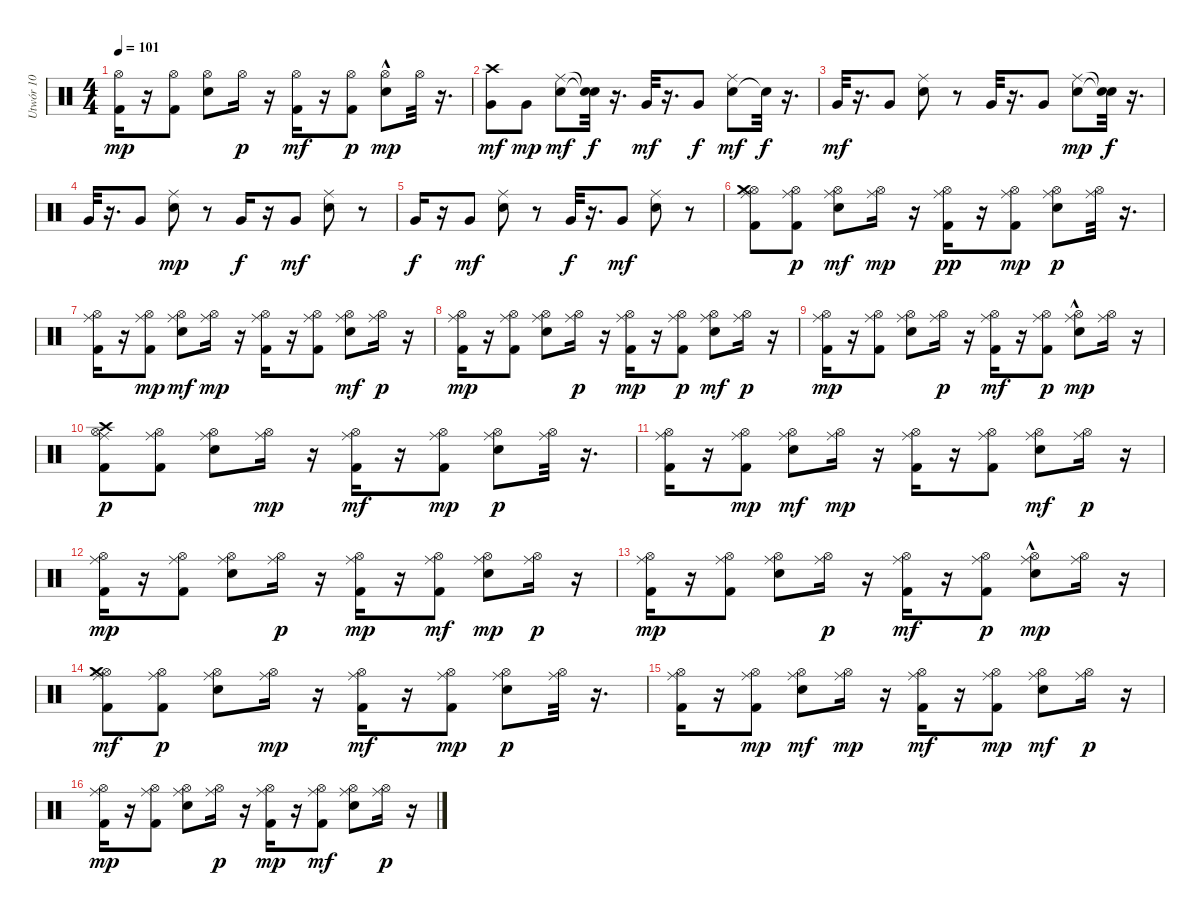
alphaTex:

\track ("Utwór 10" "Utwór 10") {instrument percussion}
\staff {score}
\articulation defaults
\ts (4 4)
\tempo 101
\clef neutral
\ks c
("Hi-Hat (open)" "Kick (hit) 2").16{dy mp} r.16 ("Hi-Hat (open)" "Kick (hit) 2").8 ("Snare (hit) 2" "Hi-Hat (open)").8 "Hi-Hat (open)".16{dy p} r.16 ("Hi-Hat (open)" "Kick (hit) 2").16{dy mf} r.16 ("Hi-Hat (open)" "Kick (hit) 2").8{dy p} ("Hi-Hat (open)" "Snare (hit) 2"{hac}).8{dy mp} "Hi-Hat (open)".32 r.16{d} |
("Very Low Tom (hit)" "Crash high (hit)").8{dy mf} "Very Low Tom (hit)".8{dy mp} ("Ride (middle)" "Snare (hit) 2").8{dy mf} ("Snare (hit)"{t} "Snare (hit)"{t}).32{dy f} r.16{d} "Very Low Tom (hit)".32{dy mf} r.16{d} "Very Low Tom (hit)".8{dy f} ("Snare (hit) 2" "Ride (middle)").8{dy mf} "Snare (hit)"{t}.32{dy f} r.16{d} |
"Very Low Tom (hit)".32{dy mf} r.16{d} "Very Low Tom (hit)".8 ("Snare (hit) 2" "Ride (middle)").8 r.8 "Very Low Tom (hit)".32 r.16{d} "Very Low Tom (hit)".8 ("Ride (middle)" "Snare (hit) 2").8{dy mp} ("Snare (hit)"{t} "Snare (hit)"{t}).32{dy f} r.16{d} |
"Very Low Tom (hit)".32 r.16{d} "Very Low Tom (hit)".8 ("Ride (middle)" "Snare (hit) 2").8{dy mp} r.8 "Very Low Tom (hit)".16{dy f} r.16 "Very Low Tom (hit)".8{dy mf} ("Snare (hit) 2" "Ride (middle)").8 r.8 |
"Very Low Tom (hit)".16{dy f} r.16 "Very Low Tom (hit)".8{dy mf} ("Snare (hit) 2" "Ride (middle)").8 r.8 "Very Low Tom (hit)".32{dy f} r.16{d} "Very Low Tom (hit)".8{dy mf} ("Snare (hit) 2" "Ride (middle)").8 r.8 |
("Hi-Hat (open)" "Crash medium (hit)" "Ride (middle)" "Kick (hit) 2").8 ("Kick (hit) 2" "Hi-Hat (open)" "Ride (middle)").8{dy p} ("Hi-Hat (open)" "Snare (hit) 2" "Ride (middle)").8{dy mf} ("Hi-Hat (open)" "Ride (middle)").16{dy mp} r.16 ("Kick (hit) 2" "Ride (middle)" "Hi-Hat (open)").16{dy pp} r.16 ("Kick (hit) 2" "Ride (middle)" "Hi-Hat (open)").8{dy mp} ("Hi-Hat (open)" "Ride (middle)" "Snare (hit) 2").8{dy p} ("Ride (middle)" "Hi-Hat (open)").32 r.16{d} |
("Ride (middle)" "Kick (hit) 2" "Hi-Hat (open)").16 r.16 ("Kick (hit) 2" "Ride (middle)" "Hi-Hat (open)").8{dy mp} ("Ride (middle)" "Hi-Hat (open)" "Snare (hit) 2").8{dy mf} ("Hi-Hat (open)" "Ride (middle)").16{dy mp} r.16 ("Ride (middle)" "Kick (hit) 2" "Hi-Hat (open)").16 r.16 ("Kick (hit) 2" "Hi-Hat (open)" "Ride (middle)").8 ("Hi-Hat (open)" "Ride (middle)" "Snare (hit) 2").8{dy mf} ("Hi-Hat (open)" "Ride (middle)").16{dy p} r.16 |
("Hi-Hat (open)" "Ride (middle)" "Kick (hit) 2").16{dy mp} r.16 ("Kick (hit) 2" "Hi-Hat (open)" "Ride (middle)").8 ("Snare (hit) 2" "Ride (middle)" "Hi-Hat (open)").8 ("Hi-Hat (open)" "Ride (middle)").16{dy p} r.16 ("Kick (hit) 2" "Ride (middle)" "Hi-Hat (open)").16{dy mp} r.16 ("Kick (hit) 2" "Hi-Hat (open)" "Ride (middle)").8{dy p} ("Hi-Hat (open)" "Ride (middle)" "Snare (hit) 2").8{dy mf} ("Ride (middle)" "Hi-Hat (open)").16{dy p} r.16 |
("Kick (hit) 2" "Hi-Hat (open)" "Ride (middle)").16{dy mp} r.16 ("Hi-Hat (open)" "Ride (middle)" "Kick (hit) 2").8 ("Snare (hit) 2" "Hi-Hat (open)" "Ride (middle)").8 ("Hi-Hat (open)" "Ride (middle)").16{dy p} r.16 ("Ride (middle)" "Hi-Hat (open)" "Kick (hit) 2").16{dy mf} r.16 ("Hi-Hat (open)" "Ride (middle)" "Kick (hit) 2").8{dy p} ("Hi-Hat (open)" "Snare (hit) 2"{hac} "Ride (middle)").8{dy mp} ("Ride (middle)" "Hi-Hat (open)").16 r.16 |
("Crash high (hit)" "Kick (hit) 2" "Ride (middle)" "Hi-Hat (open)").8{dy p} ("Kick (hit) 2" "Ride (middle)" "Hi-Hat (open)").8 ("Ride (middle)" "Snare (hit) 2" "Hi-Hat (open)").8 ("Ride (middle)" "Hi-Hat (open)").16{dy mp} r.16 ("Ride (middle)" "Hi-Hat (open)" "Kick (hit) 2").16{dy mf} r.16 ("Ride (middle)" "Hi-Hat (open)" "Kick (hit) 2").8{dy mp} ("Ride (middle)" "Snare (hit) 2" "Hi-Hat (open)").8{dy p} ("Hi-Hat (open)" "Ride (middle)").32 r.16{d} |
("Ride (middle)" "Kick (hit) 2" "Hi-Hat (open)").16 r.16 ("Kick (hit) 2" "Hi-Hat (open)" "Ride (middle)").8{dy mp} ("Ride (middle)" "Hi-Hat (open)" "Snare (hit) 2").8{dy mf} ("Ride (middle)" "Hi-Hat (open)").16{dy mp} r.16 ("Kick (hit) 2" "Ride (middle)" "Hi-Hat (open)").16 r.16 ("Kick (hit) 2" "Hi-Hat (open)" "Ride (middle)").8 ("Hi-Hat (open)" "Snare (hit) 2" "Ride (middle)").8{dy mf} ("Ride (middle)" "Hi-Hat (open)").16{dy p} r.16 |
("Kick (hit) 2" "Hi-Hat (open)" "Ride (middle)").16{dy mp} r.16 ("Ride (middle)" "Kick (hit) 2" "Hi-Hat (open)").8 ("Ride (middle)" "Hi-Hat (open)" "Snare (hit) 2").8 ("Hi-Hat (open)" "Ride (middle)").16{dy p} r.16 ("Hi-Hat (open)" "Ride (middle)" "Kick (hit) 2").16{dy mp} r.16 ("Ride (middle)" "Hi-Hat (open)" "Kick (hit) 2").8{dy mf} ("Snare (hit) 2" "Hi-Hat (open)" "Ride (middle)").8{dy mp} ("Hi-Hat (open)" "Ride (middle)").16{dy p} r.16 |
("Hi-Hat (open)" "Ride (middle)" "Kick (hit) 2").16{dy mp} r.16 ("Hi-Hat (open)" "Kick (hit) 2" "Ride (middle)").8 ("Snare (hit) 2" "Ride (middle)" "Hi-Hat (open)").8 ("Ride (middle)" "Hi-Hat (open)").16{dy p} r.16 ("Hi-Hat (open)" "Ride (middle)" "Kick (hit) 2").16{dy mf} r.16 ("Hi-Hat (open)" "Ride (middle)" "Kick (hit) 2").8{dy p} ("Snare (hit) 2"{hac} "Ride (middle)" "Hi-Hat (open)").8{dy mp} ("Ride (middle)" "Hi-Hat (open)").16 r.16 |
("Hi-Hat (open)" "Kick (hit) 2" "Crash medium (hit)" "Ride (middle)").8{dy mf} ("Ride (middle)" "Kick (hit) 2" "Hi-Hat (open)").8{dy p} ("Snare (hit) 2" "Ride (middle)" "Hi-Hat (open)").8 ("Ride (middle)" "Hi-Hat (open)").16{dy mp} r.16 ("Ride (middle)" "Hi-Hat (open)" "Kick (hit) 2").16{dy mf} r.16 ("Kick (hit) 2" "Hi-Hat (open)" "Ride (middle)").8{dy mp} ("Snare (hit) 2" "Ride (middle)" "Hi-Hat (open)").8{dy p} ("Ride (middle)" "Hi-Hat (open)").32 r.16{d} |
("Ride (middle)" "Kick (hit) 2" "Hi-Hat (open)").16 r.16 ("Kick (hit) 2" "Hi-Hat (open)" "Ride (middle)").8{dy mp} ("Hi-Hat (open)" "Ride (middle)" "Snare (hit) 2").8{dy mf} ("Ride (middle)" "Hi-Hat (open)").16{dy mp} r.16 ("Hi-Hat (open)" "Ride (middle)" "Kick (hit) 2").16{dy mf} r.16 ("Ride (middle)" "Hi-Hat (open)" "Kick (hit) 2").8{dy mp} ("Ride (middle)" "Hi-Hat (open)" "Snare (hit) 2").8{dy mf} ("Hi-Hat (open)" "Ride (middle)").16{dy p} r.16 |
("Ride (middle)" "Hi-Hat (open)" "Kick (hit) 2").16{dy mp} r.16 ("Ride (middle)" "Hi-Hat (open)" "Kick (hit) 2").8 ("Ride (middle)" "Hi-Hat (open)" "Snare (hit) 2").8 ("Hi-Hat (open)" "Ride (middle)").16{dy p} r.16 ("Kick (hit) 2" "Hi-Hat (open)" "Ride (middle)").16{dy mp} r.16 ("Hi-Hat (open)" "Ride (middle)" "Kick (hit) 2").8{dy mf} ("Ride (middle)" "Hi-Hat (open)" "Snare (hit) 2").8 ("Hi-Hat (open)" "Ride (middle)").16{dy p} r.16
